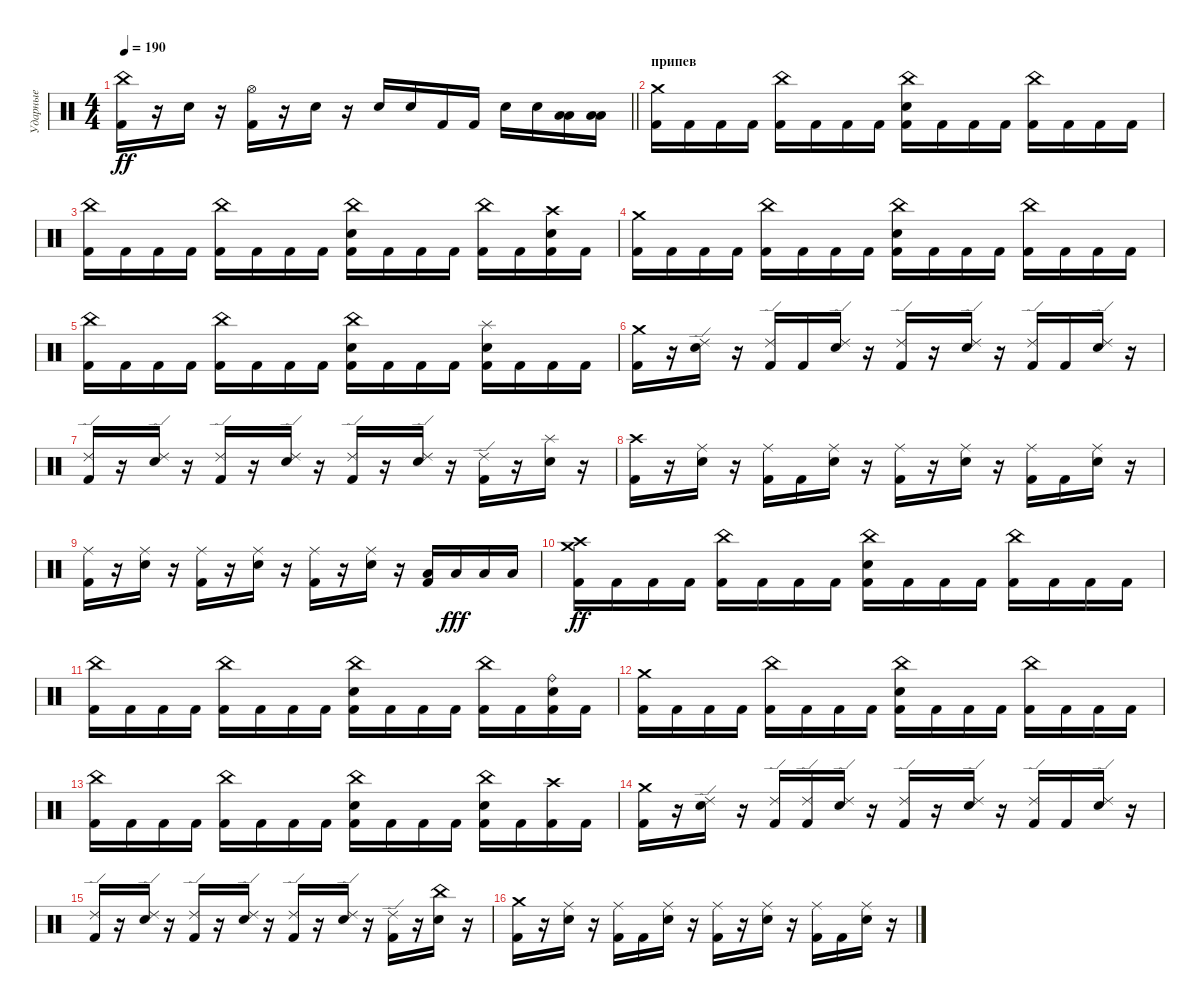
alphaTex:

\track ("Ударные" "Ударные") {instrument percussion}
\staff {score}
\articulation defaults
\ts (4 4)
\tempo 190
\clef neutral
\barLineRight lightlight
\ks c
("China (hit)" "Kick (hit) 2").16{dy ff} r.16 "Electric Snare (hit)".16 r.16 ("Hi-Hat (open)" "Kick (hit) 2").16 r.16 "Electric Snare (hit)".16 r.16 "Electric Snare (hit)".16 "Electric Snare (hit)".16 "Kick (hit) 2".16 "Kick (hit) 2".16 "Electric Snare (hit)".16 "Electric Snare (hit)".16 ("Low Tom (hit)" "Low Tom (hit)").16 ("Low Tom (hit)" "Low Tom (hit)").16 |
\section ("" "припев")
("Crash medium (hit)" "Kick (hit) 2").16 "Kick (hit) 2".16 "Kick (hit) 2".16 "Kick (hit) 2".16 ("China (hit)" "Kick (hit) 2").16 "Kick (hit) 2".16 "Kick (hit) 2".16 "Kick (hit) 2".16 ("China (hit)" "Electric Snare (hit)" "Kick (hit) 2").16 "Kick (hit) 2".16 "Kick (hit) 2".16 "Kick (hit) 2".16 ("China (hit)" "Kick (hit) 2").16 "Kick (hit) 2".16 "Kick (hit) 2".16 "Kick (hit) 2".16 |
("China (hit)" "Kick (hit) 2").16 "Kick (hit) 2".16 "Kick (hit) 2".16 "Kick (hit) 2".16 ("China (hit)" "Kick (hit) 2").16 "Kick (hit) 2".16 "Kick (hit) 2".16 "Kick (hit) 2".16 ("China (hit)" "Electric Snare (hit)" "Kick (hit) 2").16 "Kick (hit) 2".16 "Kick (hit) 2".16 "Kick (hit) 2".16 ("China (hit)" "Kick (hit) 2").16 "Kick (hit) 2".16 ("Crash high (hit)" "Electric Snare (hit)" "Kick (hit) 2").16 "Kick (hit) 2".16 |
("Crash medium (hit)" "Kick (hit) 2").16 "Kick (hit) 2".16 "Kick (hit) 2".16 "Kick (hit) 2".16 ("China (hit)" "Kick (hit) 2").16 "Kick (hit) 2".16 "Kick (hit) 2".16 "Kick (hit) 2".16 ("China (hit)" "Electric Snare (hit)" "Kick (hit) 2").16 "Kick (hit) 2".16 "Kick (hit) 2".16 "Kick (hit) 2".16 ("China (hit)" "Kick (hit) 2").16 "Kick (hit) 2".16 "Kick (hit) 2".16 "Kick (hit) 2".16 |
("China (hit)" "Kick (hit) 2").16 "Kick (hit) 2".16 "Kick (hit) 2".16 "Kick (hit) 2".16 ("China (hit)" "Kick (hit) 2").16 "Kick (hit) 2".16 "Kick (hit) 2".16 "Kick (hit) 2".16 ("China (hit)" "Electric Snare (hit)" "Kick (hit) 2").16 "Kick (hit) 2".16 "Kick (hit) 2".16 "Kick (hit) 2".16 ("Splash (hit)" "Electric Snare (hit)" "Kick (hit) 2").16 "Kick (hit) 2".16 "Kick (hit) 2".16 "Kick (hit) 2".16 |
("Crash medium (hit)" "Kick (hit) 2").16 r.16 ("Ride (edge) 2" "Electric Snare (hit)").16 r.16 ("Ride (edge) 2" "Kick (hit) 2").16 "Kick (hit) 2".16 ("Ride (edge) 2" "Electric Snare (hit)").16 r.16 ("Ride (edge) 2" "Kick (hit) 2").16 r.16 ("Ride (edge) 2" "Electric Snare (hit)").16 r.16 ("Ride (edge) 2" "Kick (hit) 2").16 "Kick (hit) 2".16 ("Ride (edge) 2" "Electric Snare (hit)").16 r.16 |
("Ride (edge) 2" "Kick (hit) 2").16 r.16 ("Ride (edge) 2" "Electric Snare (hit)").16 r.16 ("Ride (edge) 2" "Kick (hit) 2").16 r.16 ("Ride (edge) 2" "Electric Snare (hit)").16 r.16 ("Ride (edge) 2" "Kick (hit) 2").16 r.16 ("Ride (edge) 2" "Electric Snare (hit)").16 r.16 ("Ride (edge) 2" "Kick (hit) 2").16 r.16 ("Splash (hit)" "Electric Snare (hit)").16 r.16 |
("Crash high (hit)" "Kick (hit) 2").16 r.16 ("Ride (middle)" "Electric Snare (hit)").16 r.16 ("Ride (middle)" "Kick (hit) 2").16 "Kick (hit) 2".16 ("Ride (middle)" "Electric Snare (hit)").16 r.16 ("Ride (middle)" "Kick (hit) 2").16 r.16 ("Ride (middle)" "Electric Snare (hit)").16 r.16 ("Ride (middle)" "Kick (hit) 2").16 "Kick (hit) 2".16 ("Ride (middle)" "Electric Snare (hit)").16 r.16 |
("Ride (middle)" "Kick (hit) 2").16 r.16 ("Ride (middle)" "Electric Snare (hit)").16 r.16 ("Ride (middle)" "Kick (hit) 2").16 r.16 ("Ride (middle)" "Electric Snare (hit)").16 r.16 ("Ride (middle)" "Kick (hit) 2").16 r.16 ("Ride (middle)" "Electric Snare (hit)").16 r.16 ("Low Tom (hit)" "Kick (hit) 2").16 "Low Tom (hit)".16{dy fff} "Low Tom (hit)".16 "Low Tom (hit)".16 |
("Crash medium (hit)" "Crash high (hit)" "Kick (hit) 2").16{dy ff} "Kick (hit) 2".16 "Kick (hit) 2".16 "Kick (hit) 2".16 ("China (hit)" "Kick (hit) 2").16 "Kick (hit) 2".16 "Kick (hit) 2".16 "Kick (hit) 2".16 ("China (hit)" "Electric Snare (hit)" "Kick (hit) 2").16 "Kick (hit) 2".16 "Kick (hit) 2".16 "Kick (hit) 2".16 ("China (hit)" "Kick (hit) 2").16 "Kick (hit) 2".16 "Kick (hit) 2".16 "Kick (hit) 2".16 |
("China (hit)" "Kick (hit) 2").16 "Kick (hit) 2".16 "Kick (hit) 2".16 "Kick (hit) 2".16 ("China (hit)" "Kick (hit) 2").16 "Kick (hit) 2".16 "Kick (hit) 2".16 "Kick (hit) 2".16 ("China (hit)" "Electric Snare (hit)" "Kick (hit) 2").16 "Kick (hit) 2".16 "Kick (hit) 2".16 "Kick (hit) 2".16 ("China (hit)" "Kick (hit) 2").16 "Kick (hit) 2".16 ("Ride (bell)" "Electric Snare (hit)" "Kick (hit) 2").16 "Kick (hit) 2".16 |
("Crash medium (hit)" "Kick (hit) 2").16 "Kick (hit) 2".16 "Kick (hit) 2".16 "Kick (hit) 2".16 ("China (hit)" "Kick (hit) 2").16 "Kick (hit) 2".16 "Kick (hit) 2".16 "Kick (hit) 2".16 ("China (hit)" "Electric Snare (hit)" "Kick (hit) 2").16 "Kick (hit) 2".16 "Kick (hit) 2".16 "Kick (hit) 2".16 ("China (hit)" "Kick (hit) 2").16 "Kick (hit) 2".16 "Kick (hit) 2".16 "Kick (hit) 2".16 |
("China (hit)" "Kick (hit) 2").16 "Kick (hit) 2".16 "Kick (hit) 2".16 "Kick (hit) 2".16 ("China (hit)" "Kick (hit) 2").16 "Kick (hit) 2".16 "Kick (hit) 2".16 "Kick (hit) 2".16 ("China (hit)" "Electric Snare (hit)" "Kick (hit) 2").16 "Kick (hit) 2".16 "Kick (hit) 2".16 "Kick (hit) 2".16 ("China (hit)" "Electric Snare (hit)" "Kick (hit) 2").16 "Kick (hit) 2".16 ("Crash high (hit)" "Kick (hit) 2").16 "Kick (hit) 2".16 |
("Crash medium (hit)" "Kick (hit) 2").16 r.16 ("Ride (edge) 2" "Electric Snare (hit)").16 r.16 ("Ride (edge) 2" "Kick (hit) 2").16 ("Ride (edge) 2" "Kick (hit) 2").16 ("Ride (edge) 2" "Electric Snare (hit)").16 r.16 ("Ride (edge) 2" "Kick (hit) 2").16 r.16 ("Ride (edge) 2" "Electric Snare (hit)").16 r.16 ("Ride (edge) 2" "Kick (hit) 2").16 "Kick (hit) 2".16 ("Ride (edge) 2" "Electric Snare (hit)").16 r.16 |
("Ride (edge) 2" "Kick (hit) 2").16 r.16 ("Ride (edge) 2" "Electric Snare (hit)").16 r.16 ("Ride (edge) 2" "Kick (hit) 2").16 r.16 ("Ride (edge) 2" "Electric Snare (hit)").16 r.16 ("Ride (edge) 2" "Kick (hit) 2").16 r.16 ("Ride (edge) 2" "Electric Snare (hit)").16 r.16 ("Ride (edge) 2" "Kick (hit) 2").16 r.16 ("China (hit)" "Electric Snare (hit)").16 r.16 |
("Crash medium (hit)" "Kick (hit) 2").16 r.16 ("Ride (middle)" "Electric Snare (hit)").16 r.16 ("Ride (middle)" "Kick (hit) 2").16 "Kick (hit) 2".16 ("Ride (middle)" "Electric Snare (hit)").16 r.16 ("Ride (middle)" "Kick (hit) 2").16 r.16 ("Ride (middle)" "Electric Snare (hit)").16 r.16 ("Ride (middle)" "Kick (hit) 2").16 "Kick (hit) 2".16 ("Ride (middle)" "Electric Snare (hit)").16 r.16
